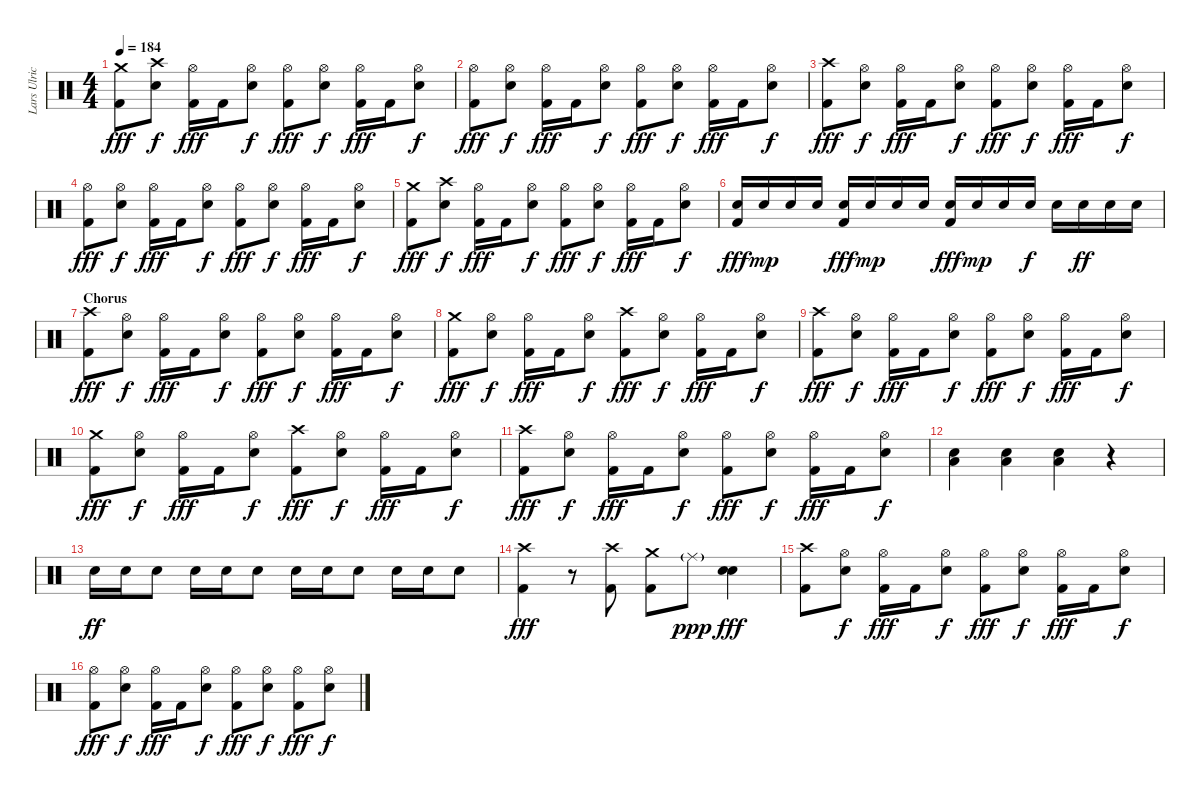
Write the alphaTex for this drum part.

\track ("Lars Ulrich" "Lars Ulric") {instrument percussion}
\staff {score}
\articulation defaults
\ts (4 4)
\tempo 184
\clef neutral
\ks c
("Crash medium (hit)" "Kick (hit) 2").8{dy fff} ("Crash high (hit)" "Electric Snare (hit)").8{dy f} ("Hi-Hat (open)" "Kick (hit) 2").16{dy fff} "Kick (hit) 2".16 ("Hi-Hat (open)" "Electric Snare (hit)").8{dy f} ("Hi-Hat (open)" "Kick (hit) 2").8{dy fff} ("Hi-Hat (open)" "Electric Snare (hit)").8{dy f} ("Hi-Hat (open)" "Kick (hit) 2").16{dy fff} "Kick (hit) 2".16 ("Hi-Hat (open)" "Electric Snare (hit)").8{dy f} |
("Hi-Hat (open)" "Kick (hit) 2").8{dy fff} ("Hi-Hat (open)" "Electric Snare (hit)").8{dy f} ("Hi-Hat (open)" "Kick (hit) 2").16{dy fff} "Kick (hit) 2".16 ("Hi-Hat (open)" "Electric Snare (hit)").8{dy f} ("Hi-Hat (open)" "Kick (hit) 2").8{dy fff} ("Hi-Hat (open)" "Electric Snare (hit)").8{dy f} ("Hi-Hat (open)" "Kick (hit) 2").16{dy fff} "Kick (hit) 2".16 ("Hi-Hat (open)" "Electric Snare (hit)").8{dy f} |
("Crash high (hit)" "Kick (hit) 2").8{dy fff} ("Hi-Hat (open)" "Electric Snare (hit)").8{dy f} ("Hi-Hat (open)" "Kick (hit) 2").16{dy fff} "Kick (hit) 2".16 ("Hi-Hat (open)" "Electric Snare (hit)").8{dy f} ("Hi-Hat (open)" "Kick (hit) 2").8{dy fff} ("Hi-Hat (open)" "Electric Snare (hit)").8{dy f} ("Hi-Hat (open)" "Kick (hit) 2").16{dy fff} "Kick (hit) 2".16 ("Hi-Hat (open)" "Electric Snare (hit)").8{dy f} |
("Hi-Hat (open)" "Kick (hit) 2").8{dy fff} ("Hi-Hat (open)" "Electric Snare (hit)").8{dy f} ("Hi-Hat (open)" "Kick (hit) 2").16{dy fff} "Kick (hit) 2".16 ("Hi-Hat (open)" "Electric Snare (hit)").8{dy f} ("Hi-Hat (open)" "Kick (hit) 2").8{dy fff} ("Hi-Hat (open)" "Electric Snare (hit)").8{dy f} ("Hi-Hat (open)" "Kick (hit) 2").16{dy fff} "Kick (hit) 2".16 ("Hi-Hat (open)" "Electric Snare (hit)").8{dy f} |
("Crash medium (hit)" "Kick (hit) 2").8{dy fff} ("Crash high (hit)" "Electric Snare (hit)").8{dy f} ("Hi-Hat (open)" "Kick (hit) 2").16{dy fff} "Kick (hit) 2".16 ("Hi-Hat (open)" "Electric Snare (hit)").8{dy f} ("Hi-Hat (open)" "Kick (hit) 2").8{dy fff} ("Hi-Hat (open)" "Electric Snare (hit)").8{dy f} ("Hi-Hat (open)" "Kick (hit) 2").16{dy fff} "Kick (hit) 2".16 ("Hi-Hat (open)" "Electric Snare (hit)").8{dy f} |
("Electric Snare (hit)" "Kick (hit) 2").16{dy fff} "Electric Snare (hit)".16{dy mp} "Electric Snare (hit)".16 "Electric Snare (hit)".16 ("Electric Snare (hit)" "Kick (hit) 2").16{dy fff} "Electric Snare (hit)".16{dy mp} "Electric Snare (hit)".16 "Electric Snare (hit)".16 ("Electric Snare (hit)" "Kick (hit) 2").16{dy fff} "Electric Snare (hit)".16{dy mp} "Electric Snare (hit)".16 "Electric Snare (hit)".16{dy f} "Electric Snare (hit)".16 "Electric Snare (hit)".16{dy ff} "Electric Snare (hit)".16 "Electric Snare (hit)".16 |
\section ("" "Chorus")
("Crash high (hit)" "Kick (hit) 2").8{dy fff} ("Hi-Hat (open)" "Electric Snare (hit)").8{dy f} ("Hi-Hat (open)" "Kick (hit) 2").16{dy fff} "Kick (hit) 2".16 ("Hi-Hat (open)" "Electric Snare (hit)").8{dy f} ("Hi-Hat (open)" "Kick (hit) 2").8{dy fff} ("Hi-Hat (open)" "Electric Snare (hit)").8{dy f} ("Hi-Hat (open)" "Kick (hit) 2").16{dy fff} "Kick (hit) 2".16 ("Hi-Hat (open)" "Electric Snare (hit)").8{dy f} |
("Crash medium (hit)" "Kick (hit) 2").8{dy fff} ("Hi-Hat (open)" "Electric Snare (hit)").8{dy f} ("Hi-Hat (open)" "Kick (hit) 2").16{dy fff} "Kick (hit) 2".16 ("Hi-Hat (open)" "Electric Snare (hit)").8{dy f} ("Crash high (hit)" "Kick (hit) 2").8{dy fff} ("Hi-Hat (open)" "Electric Snare (hit)").8{dy f} ("Hi-Hat (open)" "Kick (hit) 2").16{dy fff} "Kick (hit) 2".16 ("Hi-Hat (open)" "Electric Snare (hit)").8{dy f} |
("Crash high (hit)" "Kick (hit) 2").8{dy fff} ("Hi-Hat (open)" "Electric Snare (hit)").8{dy f} ("Hi-Hat (open)" "Kick (hit) 2").16{dy fff} "Kick (hit) 2".16 ("Hi-Hat (open)" "Electric Snare (hit)").8{dy f} ("Hi-Hat (open)" "Kick (hit) 2").8{dy fff} ("Hi-Hat (open)" "Electric Snare (hit)").8{dy f} ("Hi-Hat (open)" "Kick (hit) 2").16{dy fff} "Kick (hit) 2".16 ("Hi-Hat (open)" "Electric Snare (hit)").8{dy f} |
("Crash medium (hit)" "Kick (hit) 2").8{dy fff} ("Hi-Hat (open)" "Electric Snare (hit)").8{dy f} ("Hi-Hat (open)" "Kick (hit) 2").16{dy fff} "Kick (hit) 2".16 ("Hi-Hat (open)" "Electric Snare (hit)").8{dy f} ("Crash high (hit)" "Kick (hit) 2").8{dy fff} ("Hi-Hat (open)" "Electric Snare (hit)").8{dy f} ("Hi-Hat (open)" "Kick (hit) 2").16{dy fff} "Kick (hit) 2".16 ("Hi-Hat (open)" "Electric Snare (hit)").8{dy f} |
("Crash high (hit)" "Kick (hit) 2").8{dy fff} ("Hi-Hat (open)" "Electric Snare (hit)").8{dy f} ("Hi-Hat (open)" "Kick (hit) 2").16{dy fff} "Kick (hit) 2".16 ("Hi-Hat (open)" "Electric Snare (hit)").8{dy f} ("Hi-Hat (open)" "Kick (hit) 2").8{dy fff} ("Hi-Hat (open)" "Electric Snare (hit)").8{dy f} ("Hi-Hat (open)" "Kick (hit) 2").16{dy fff} "Kick (hit) 2".16 ("Hi-Hat (open)" "Electric Snare (hit)").8{dy f} |
("Electric Snare (hit)" "Low Floor Tom (hit)").4 ("Electric Snare (hit)" "Low Floor Tom (hit)").4 ("Electric Snare (hit)" "Low Floor Tom (hit)").4 r.4 |
"Electric Snare (hit)".16{dy ff} "Electric Snare (hit)".16 "Electric Snare (hit)".8 "Electric Snare (hit)".16 "Electric Snare (hit)".16 "Electric Snare (hit)".8 "Electric Snare (hit)".16 "Electric Snare (hit)".16 "Electric Snare (hit)".8 "Electric Snare (hit)".16 "Electric Snare (hit)".16 "Electric Snare (hit)".8 |
("Crash high (hit)" "Kick (hit) 2").4{dy fff} r.8 ("Crash high (hit)" "Kick (hit) 2").8 ("Crash medium (hit)" "Kick (hit) 2").8 "Ride (middle)"{g}.8{dy ppp} ("Electric Snare (hit)" "Electric Snare (hit)").4{bu 120 dy fff} |
("Crash high (hit)" "Kick (hit) 2").8 ("Hi-Hat (open)" "Electric Snare (hit)").8{dy f} ("Hi-Hat (open)" "Kick (hit) 2").16{dy fff} "Kick (hit) 2".16 ("Hi-Hat (open)" "Electric Snare (hit)").8{dy f} ("Hi-Hat (open)" "Kick (hit) 2").8{dy fff} ("Hi-Hat (open)" "Electric Snare (hit)").8{dy f} ("Hi-Hat (open)" "Kick (hit) 2").16{dy fff} "Kick (hit) 2".16 ("Hi-Hat (open)" "Electric Snare (hit)").8{dy f} |
("Hi-Hat (open)" "Kick (hit) 2").8{dy fff} ("Hi-Hat (open)" "Electric Snare (hit)").8{dy f} ("Hi-Hat (open)" "Kick (hit) 2").16{dy fff} "Kick (hit) 2".16 ("Hi-Hat (open)" "Electric Snare (hit)").8{dy f} ("Hi-Hat (open)" "Kick (hit) 2").8{dy fff} ("Hi-Hat (open)" "Electric Snare (hit)").8{dy f} ("Hi-Hat (open)" "Kick (hit) 2").8{dy fff} ("Hi-Hat (open)" "Electric Snare (hit)").8{dy f}
